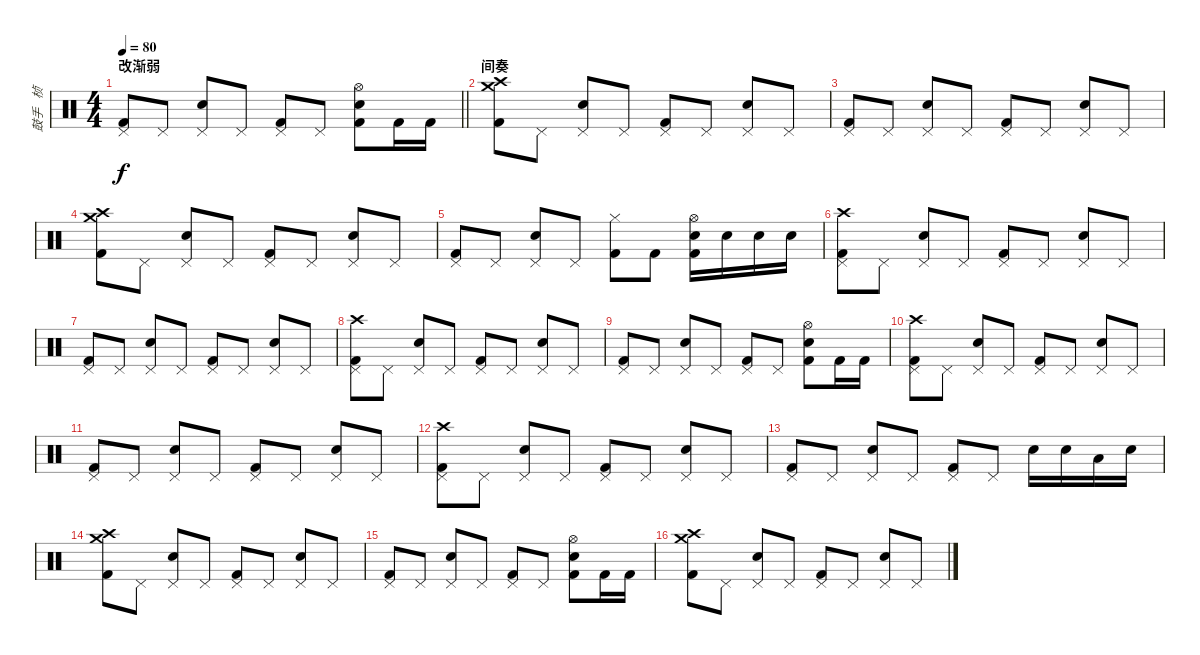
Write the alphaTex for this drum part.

\track ("鼓手   桢" "鼓手   桢") {instrument percussion}
\staff {score}
\articulation defaults
\ts (4 4)
\section ("" "改渐弱")
\tempo 80
\clef neutral
\barLineRight lightlight
\ks c
("Pedal Hi-Hat (hit)" "Kick (hit) 2").8{dy f} "Pedal Hi-Hat (hit)".8 ("Pedal Hi-Hat (hit)" "Snare (hit) 2").8 "Pedal Hi-Hat (hit)".8 ("Pedal Hi-Hat (hit)" "Kick (hit) 2").8 "Pedal Hi-Hat (hit)".8 ("Hi-Hat (open)" "Snare (hit) 2" "Kick (hit) 2").8 "Kick (hit) 2".16 "Kick (hit) 2".16 |
\section ("" "间奏")
("Crash high (hit)" "Crash medium (hit)" "Kick (hit) 2").8 "Pedal Hi-Hat (hit)".8 ("Pedal Hi-Hat (hit)" "Snare (hit) 2").8 "Pedal Hi-Hat (hit)".8 ("Pedal Hi-Hat (hit)" "Kick (hit) 2").8 "Pedal Hi-Hat (hit)".8 ("Pedal Hi-Hat (hit)" "Snare (hit) 2").8 "Pedal Hi-Hat (hit)".8 |
("Pedal Hi-Hat (hit)" "Kick (hit) 2").8 "Pedal Hi-Hat (hit)".8 ("Pedal Hi-Hat (hit)" "Snare (hit) 2").8 "Pedal Hi-Hat (hit)".8 ("Pedal Hi-Hat (hit)" "Kick (hit) 2").8 "Pedal Hi-Hat (hit)".8 ("Pedal Hi-Hat (hit)" "Snare (hit) 2").8 "Pedal Hi-Hat (hit)".8 |
("Crash high (hit)" "Crash medium (hit)" "Kick (hit) 2").8 "Pedal Hi-Hat (hit)".8 ("Pedal Hi-Hat (hit)" "Snare (hit) 2").8 "Pedal Hi-Hat (hit)".8 ("Pedal Hi-Hat (hit)" "Kick (hit) 2").8 "Pedal Hi-Hat (hit)".8 ("Pedal Hi-Hat (hit)" "Snare (hit) 2").8 "Pedal Hi-Hat (hit)".8 |
("Pedal Hi-Hat (hit)" "Kick (hit) 2").8 "Pedal Hi-Hat (hit)".8 ("Pedal Hi-Hat (hit)" "Snare (hit) 2").8 "Pedal Hi-Hat (hit)".8 ("Hi-Hat (closed)" "Kick (hit) 2").8 "Kick (hit) 2".8 ("Hi-Hat (open)" "Snare (hit) 2" "Kick (hit) 2").16 "Snare (hit) 2".16 "Snare (hit) 2".16 "Snare (hit) 2".16 |
("Pedal Hi-Hat (hit)" "Kick (hit) 2" "Crash high (hit)").8 "Pedal Hi-Hat (hit)".8 ("Pedal Hi-Hat (hit)" "Snare (hit) 2").8 "Pedal Hi-Hat (hit)".8 ("Pedal Hi-Hat (hit)" "Kick (hit) 2").8 "Pedal Hi-Hat (hit)".8 ("Pedal Hi-Hat (hit)" "Snare (hit) 2").8 "Pedal Hi-Hat (hit)".8 |
("Pedal Hi-Hat (hit)" "Kick (hit) 2").8 "Pedal Hi-Hat (hit)".8 ("Pedal Hi-Hat (hit)" "Snare (hit) 2").8 "Pedal Hi-Hat (hit)".8 ("Pedal Hi-Hat (hit)" "Kick (hit) 2").8 "Pedal Hi-Hat (hit)".8 ("Pedal Hi-Hat (hit)" "Snare (hit) 2").8 "Pedal Hi-Hat (hit)".8 |
("Pedal Hi-Hat (hit)" "Kick (hit) 2" "Crash high (hit)").8 "Pedal Hi-Hat (hit)".8 ("Pedal Hi-Hat (hit)" "Snare (hit) 2").8 "Pedal Hi-Hat (hit)".8 ("Pedal Hi-Hat (hit)" "Kick (hit) 2").8 "Pedal Hi-Hat (hit)".8 ("Pedal Hi-Hat (hit)" "Snare (hit) 2").8 "Pedal Hi-Hat (hit)".8 |
("Pedal Hi-Hat (hit)" "Kick (hit) 2").8 "Pedal Hi-Hat (hit)".8 ("Pedal Hi-Hat (hit)" "Snare (hit) 2").8 "Pedal Hi-Hat (hit)".8 ("Pedal Hi-Hat (hit)" "Kick (hit) 2").8 "Pedal Hi-Hat (hit)".8 ("Hi-Hat (open)" "Snare (hit) 2" "Kick (hit) 2").8 "Kick (hit) 2".16 "Kick (hit) 2".16 |
("Pedal Hi-Hat (hit)" "Kick (hit) 2" "Crash high (hit)").8 "Pedal Hi-Hat (hit)".8 ("Pedal Hi-Hat (hit)" "Snare (hit) 2").8 "Pedal Hi-Hat (hit)".8 ("Pedal Hi-Hat (hit)" "Kick (hit) 2").8 "Pedal Hi-Hat (hit)".8 ("Pedal Hi-Hat (hit)" "Snare (hit) 2").8 "Pedal Hi-Hat (hit)".8 |
("Pedal Hi-Hat (hit)" "Kick (hit) 2").8 "Pedal Hi-Hat (hit)".8 ("Pedal Hi-Hat (hit)" "Snare (hit) 2").8 "Pedal Hi-Hat (hit)".8 ("Pedal Hi-Hat (hit)" "Kick (hit) 2").8 "Pedal Hi-Hat (hit)".8 ("Pedal Hi-Hat (hit)" "Snare (hit) 2").8 "Pedal Hi-Hat (hit)".8 |
("Pedal Hi-Hat (hit)" "Kick (hit) 2" "Crash high (hit)").8 "Pedal Hi-Hat (hit)".8 ("Pedal Hi-Hat (hit)" "Snare (hit) 2").8 "Pedal Hi-Hat (hit)".8 ("Pedal Hi-Hat (hit)" "Kick (hit) 2").8 "Pedal Hi-Hat (hit)".8 ("Pedal Hi-Hat (hit)" "Snare (hit) 2").8 "Pedal Hi-Hat (hit)".8 |
("Pedal Hi-Hat (hit)" "Kick (hit) 2").8 "Pedal Hi-Hat (hit)".8 ("Pedal Hi-Hat (hit)" "Snare (hit) 2").8 "Pedal Hi-Hat (hit)".8 ("Pedal Hi-Hat (hit)" "Kick (hit) 2").8 "Pedal Hi-Hat (hit)".8 "Snare (hit) 2".16 "Snare (hit) 2".16 "Low Tom (hit)".16 "Snare (hit) 2".16 |
("Crash high (hit)" "Crash medium (hit)" "Kick (hit) 2").8 "Pedal Hi-Hat (hit)".8 ("Pedal Hi-Hat (hit)" "Snare (hit) 2").8 "Pedal Hi-Hat (hit)".8 ("Pedal Hi-Hat (hit)" "Kick (hit) 2").8 "Pedal Hi-Hat (hit)".8 ("Pedal Hi-Hat (hit)" "Snare (hit) 2").8 "Pedal Hi-Hat (hit)".8 |
("Pedal Hi-Hat (hit)" "Kick (hit) 2").8 "Pedal Hi-Hat (hit)".8 ("Pedal Hi-Hat (hit)" "Snare (hit) 2").8 "Pedal Hi-Hat (hit)".8 ("Pedal Hi-Hat (hit)" "Kick (hit) 2").8 "Pedal Hi-Hat (hit)".8 ("Hi-Hat (open)" "Snare (hit) 2" "Kick (hit) 2").8 "Kick (hit) 2".16 "Kick (hit) 2".16 |
("Crash high (hit)" "Crash medium (hit)" "Kick (hit) 2").8 "Pedal Hi-Hat (hit)".8 ("Pedal Hi-Hat (hit)" "Snare (hit) 2").8 "Pedal Hi-Hat (hit)".8 ("Pedal Hi-Hat (hit)" "Kick (hit) 2").8 "Pedal Hi-Hat (hit)".8 ("Pedal Hi-Hat (hit)" "Snare (hit) 2").8 "Pedal Hi-Hat (hit)".8
